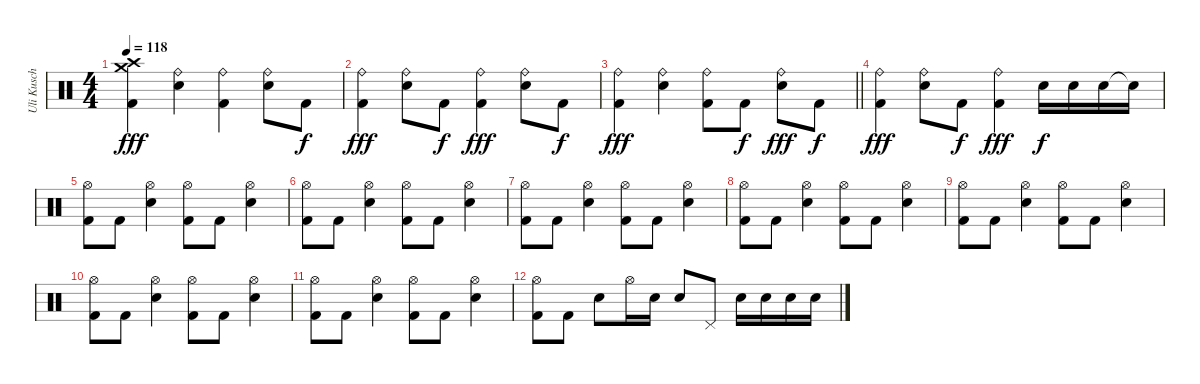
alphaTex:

\track ("Uli Kusch" "Uli Kusch") {instrument percussion}
\staff {score}
\articulation defaults
\ts (4 4)
\tempo 118
\clef neutral
\ks c
("Kick (hit) 2" "Crash high (hit)" "Crash medium (hit)").4{dy fff} ("Electric Snare (hit)" "Ride (bell)").4 ("Kick (hit) 2" "Ride (bell)").4 ("Electric Snare (hit)" "Ride (bell)").8 "Kick (hit) 2".8{dy f} |
("Kick (hit) 2" "Ride (bell)").4{dy fff} ("Electric Snare (hit)" "Ride (bell)").8 "Kick (hit) 2".8{dy f} ("Kick (hit) 2" "Ride (bell)").4{dy fff} ("Electric Snare (hit)" "Ride (bell)").8 "Kick (hit) 2".8{dy f} |
\barLineRight lightlight
("Kick (hit) 2" "Ride (bell)").4{dy fff} ("Electric Snare (hit)" "Ride (bell)").4 ("Kick (hit) 2" "Ride (bell)").8 "Kick (hit) 2".8{dy f} ("Electric Snare (hit)" "Ride (bell)").8{dy fff} "Kick (hit) 2".8{dy f} |
("Kick (hit) 2" "Ride (bell)").4{dy fff} ("Electric Snare (hit)" "Ride (bell)").8 "Kick (hit) 2".8{dy f} ("Kick (hit) 2" "Ride (bell)").4{dy fff} "Electric Snare (hit)".16{dy f} "Electric Snare (hit)".16 "Electric Snare (hit)".16 "Snare (hit)"{t}.16 |
("Kick (hit) 2" "Hi-Hat (open)").8 "Kick (hit) 2".8 ("Electric Snare (hit)" "Hi-Hat (open)").4 ("Kick (hit) 2" "Hi-Hat (open)").8 "Kick (hit) 2".8 ("Electric Snare (hit)" "Hi-Hat (open)").4 |
("Kick (hit) 2" "Hi-Hat (open)").8 "Kick (hit) 2".8 ("Electric Snare (hit)" "Hi-Hat (open)").4 ("Kick (hit) 2" "Hi-Hat (open)").8 "Kick (hit) 2".8 ("Electric Snare (hit)" "Hi-Hat (open)").4 |
("Kick (hit) 2" "Hi-Hat (open)").8 "Kick (hit) 2".8 ("Electric Snare (hit)" "Hi-Hat (open)").4 ("Kick (hit) 2" "Hi-Hat (open)").8 "Kick (hit) 2".8 ("Electric Snare (hit)" "Hi-Hat (open)").4 |
("Kick (hit) 2" "Hi-Hat (open)").8 "Kick (hit) 2".8 ("Electric Snare (hit)" "Hi-Hat (open)").4 ("Kick (hit) 2" "Hi-Hat (open)").8 "Kick (hit) 2".8 ("Electric Snare (hit)" "Hi-Hat (open)").4 |
("Kick (hit) 2" "Hi-Hat (open)").8 "Kick (hit) 2".8 ("Electric Snare (hit)" "Hi-Hat (open)").4 ("Kick (hit) 2" "Hi-Hat (open)").8 "Kick (hit) 2".8 ("Electric Snare (hit)" "Hi-Hat (open)").4 |
("Kick (hit) 2" "Hi-Hat (open)").8 "Kick (hit) 2".8 ("Electric Snare (hit)" "Hi-Hat (open)").4 ("Kick (hit) 2" "Hi-Hat (open)").8 "Kick (hit) 2".8 ("Electric Snare (hit)" "Hi-Hat (open)").4 |
("Kick (hit) 2" "Hi-Hat (open)").8 "Kick (hit) 2".8 ("Electric Snare (hit)" "Hi-Hat (open)").4 ("Kick (hit) 2" "Hi-Hat (open)").8 "Kick (hit) 2".8 ("Electric Snare (hit)" "Hi-Hat (open)").4 |
("Kick (hit) 2" "Hi-Hat (open)").8 "Kick (hit) 2".8 "Electric Snare (hit)".8 "Hi-Hat (open)".16 "Electric Snare (hit)".16 "Electric Snare (hit)".8 "Pedal Hi-Hat (hit)".8 "Electric Snare (hit)".16 "Electric Snare (hit)".16 "Electric Snare (hit)".16 "Electric Snare (hit)".16
